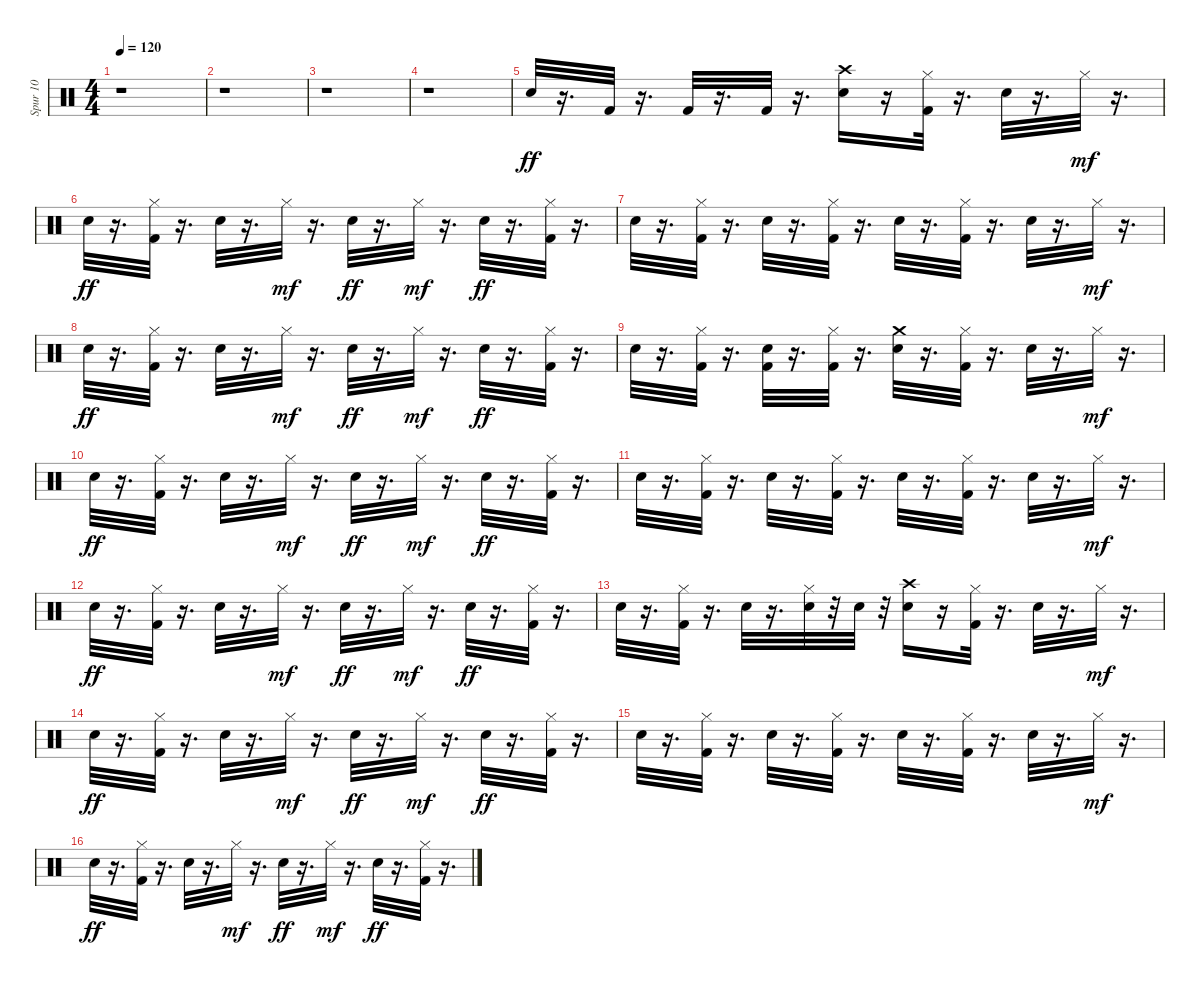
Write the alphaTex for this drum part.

\track ("Spur 10" "Spur 10") {instrument percussion}
\staff {score}
\articulation defaults
\ts (4 4)
\tempo 120
\clef neutral
\ks c
r.1{dy ff} |
r.1 |
r.1 |
r.1 |
"Snare (hit) 2".32 r.16{d} "Kick (hit) 2".32 r.16{d} "Kick (hit) 2".32 r.16{d} "Kick (hit) 2".32 r.16{d} ("Crash high (hit)" "Snare (hit) 2").16 r.16 ("Hi-Hat (closed)" "Kick (hit) 2").32 r.16{d} "Snare (hit) 2".32 r.16{d} "Hi-Hat (closed)".32{dy mf} r.16{d} |
"Snare (hit) 2".32{dy ff} r.16{d} ("Hi-Hat (closed)" "Kick (hit) 2").32 r.16{d} "Snare (hit) 2".32 r.16{d} "Hi-Hat (closed)".32{dy mf} r.16{d} "Snare (hit) 2".32{dy ff} r.16{d} "Hi-Hat (closed)".32{dy mf} r.16{d} "Snare (hit) 2".32{dy ff} r.16{d} ("Hi-Hat (closed)" "Kick (hit) 2").32 r.16{d} |
"Snare (hit) 2".32 r.16{d} ("Hi-Hat (closed)" "Kick (hit) 2").32 r.16{d} "Snare (hit) 2".32 r.16{d} ("Hi-Hat (closed)" "Kick (hit) 2").32 r.16{d} "Snare (hit) 2".32 r.16{d} ("Hi-Hat (closed)" "Kick (hit) 2").32 r.16{d} "Snare (hit) 2".32 r.16{d} "Hi-Hat (closed)".32{dy mf} r.16{d} |
"Snare (hit) 2".32{dy ff} r.16{d} ("Hi-Hat (closed)" "Kick (hit) 2").32 r.16{d} "Snare (hit) 2".32 r.16{d} "Hi-Hat (closed)".32{dy mf} r.16{d} "Snare (hit) 2".32{dy ff} r.16{d} "Hi-Hat (closed)".32{dy mf} r.16{d} "Snare (hit) 2".32{dy ff} r.16{d} ("Hi-Hat (closed)" "Kick (hit) 2").32 r.16{d} |
"Snare (hit) 2".32 r.16{d} ("Hi-Hat (closed)" "Kick (hit) 2").32 r.16{d} ("Kick (hit) 2" "Snare (hit) 2").32 r.16{d} ("Hi-Hat (closed)" "Kick (hit) 2").32 r.16{d} ("Crash medium (hit)" "Snare (hit) 2").32 r.16{d} ("Hi-Hat (closed)" "Kick (hit) 2").32 r.16{d} "Snare (hit) 2".32 r.16{d} "Hi-Hat (closed)".32{dy mf} r.16{d} |
"Snare (hit) 2".32{dy ff} r.16{d} ("Hi-Hat (closed)" "Kick (hit) 2").32 r.16{d} "Snare (hit) 2".32 r.16{d} "Hi-Hat (closed)".32{dy mf} r.16{d} "Snare (hit) 2".32{dy ff} r.16{d} "Hi-Hat (closed)".32{dy mf} r.16{d} "Snare (hit) 2".32{dy ff} r.16{d} ("Hi-Hat (closed)" "Kick (hit) 2").32 r.16{d} |
"Snare (hit) 2".32 r.16{d} ("Hi-Hat (closed)" "Kick (hit) 2").32 r.16{d} "Snare (hit) 2".32 r.16{d} ("Hi-Hat (closed)" "Kick (hit) 2").32 r.16{d} "Snare (hit) 2".32 r.16{d} ("Hi-Hat (closed)" "Kick (hit) 2").32 r.16{d} "Snare (hit) 2".32 r.16{d} "Hi-Hat (closed)".32{dy mf} r.16{d} |
"Snare (hit) 2".32{dy ff} r.16{d} ("Hi-Hat (closed)" "Kick (hit) 2").32 r.16{d} "Snare (hit) 2".32 r.16{d} "Hi-Hat (closed)".32{dy mf} r.16{d} "Snare (hit) 2".32{dy ff} r.16{d} "Hi-Hat (closed)".32{dy mf} r.16{d} "Snare (hit) 2".32{dy ff} r.16{d} ("Hi-Hat (closed)" "Kick (hit) 2").32 r.16{d} |
"Snare (hit) 2".32 r.16{d} ("Hi-Hat (closed)" "Kick (hit) 2").32 r.16{d} "Snare (hit) 2".32 r.16{d} ("Hi-Hat (closed)" "Snare (hit) 2").32 r.32 "Snare (hit) 2".32 r.32 ("Crash high (hit)" "Snare (hit) 2").16 r.16 ("Hi-Hat (closed)" "Kick (hit) 2").32 r.16{d} "Snare (hit) 2".32 r.16{d} "Hi-Hat (closed)".32{dy mf} r.16{d} |
"Snare (hit) 2".32{dy ff} r.16{d} ("Hi-Hat (closed)" "Kick (hit) 2").32 r.16{d} "Snare (hit) 2".32 r.16{d} "Hi-Hat (closed)".32{dy mf} r.16{d} "Snare (hit) 2".32{dy ff} r.16{d} "Hi-Hat (closed)".32{dy mf} r.16{d} "Snare (hit) 2".32{dy ff} r.16{d} ("Hi-Hat (closed)" "Kick (hit) 2").32 r.16{d} |
"Snare (hit) 2".32 r.16{d} ("Hi-Hat (closed)" "Kick (hit) 2").32 r.16{d} "Snare (hit) 2".32 r.16{d} ("Hi-Hat (closed)" "Kick (hit) 2").32 r.16{d} "Snare (hit) 2".32 r.16{d} ("Hi-Hat (closed)" "Kick (hit) 2").32 r.16{d} "Snare (hit) 2".32 r.16{d} "Hi-Hat (closed)".32{dy mf} r.16{d} |
"Snare (hit) 2".32{dy ff} r.16{d} ("Hi-Hat (closed)" "Kick (hit) 2").32 r.16{d} "Snare (hit) 2".32 r.16{d} "Hi-Hat (closed)".32{dy mf} r.16{d} "Snare (hit) 2".32{dy ff} r.16{d} "Hi-Hat (closed)".32{dy mf} r.16{d} "Snare (hit) 2".32{dy ff} r.16{d} ("Hi-Hat (closed)" "Kick (hit) 2").32 r.16{d}
